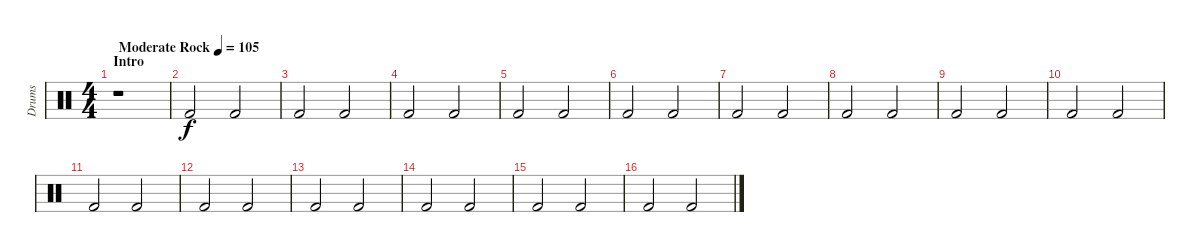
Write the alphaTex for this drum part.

\track ("Drums" "Drums") {instrument percussion}
\staff {score}
\articulation defaults
\ts (4 4)
\section ("" "Intro")
\tempo (105 "Moderate Rock")
\clef neutral
\ks c
r.1{dy f volume 0} |
"Kick (hit) 2".2{volume 15} "Kick (hit) 2".2 |
"Kick (hit) 2".2 "Kick (hit) 2".2 |
"Kick (hit) 2".2 "Kick (hit) 2".2 |
"Kick (hit) 2".2 "Kick (hit) 2".2 |
"Kick (hit) 2".2 "Kick (hit) 2".2 |
"Kick (hit) 2".2 "Kick (hit) 2".2 |
"Kick (hit) 2".2 "Kick (hit) 2".2 |
"Kick (hit) 2".2 "Kick (hit) 2".2 |
"Kick (hit) 2".2 "Kick (hit) 2".2 |
"Kick (hit) 2".2 "Kick (hit) 2".2 |
"Kick (hit) 2".2 "Kick (hit) 2".2 |
"Kick (hit) 2".2 "Kick (hit) 2".2 |
"Kick (hit) 2".2 "Kick (hit) 2".2 |
"Kick (hit) 2".2 "Kick (hit) 2".2 |
"Kick (hit) 2".2 "Kick (hit) 2".2
